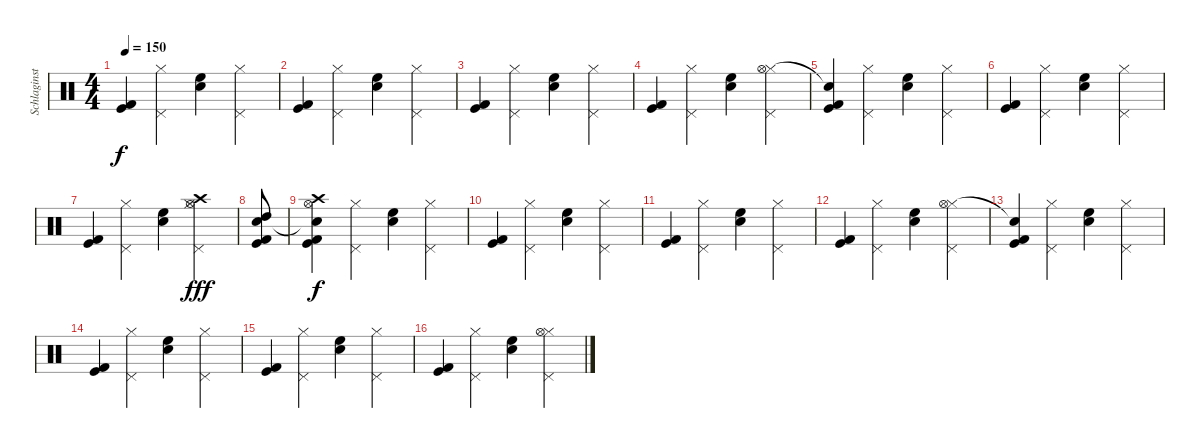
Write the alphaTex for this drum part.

\track ("Schlaginstrumente - Auswahl" "Schlaginst") {instrument percussion}
\staff {score}
\articulation defaults
\ts (4 4)
\tempo 150
\clef neutral
\ks c
("Kick (hit) 2" "Kick (hit)").4{dy f} ("Pedal Hi-Hat (hit)" "Hi-Hat (closed)").4 ("High Floor Tom (hit)" "Snare (hit) 2").4 ("Pedal Hi-Hat (hit)" "Hi-Hat (closed)").4 |
("Kick (hit) 2" "Kick (hit)").4 ("Pedal Hi-Hat (hit)" "Hi-Hat (closed)").4 ("High Floor Tom (hit)" "Snare (hit) 2").4 ("Pedal Hi-Hat (hit)" "Hi-Hat (closed)").4 |
("Kick (hit) 2" "Kick (hit)").4 ("Pedal Hi-Hat (hit)" "Hi-Hat (closed)").4 ("High Floor Tom (hit)" "Snare (hit) 2").4 ("Pedal Hi-Hat (hit)" "Hi-Hat (closed)").4 |
("Kick (hit) 2" "Kick (hit)").4 ("Pedal Hi-Hat (hit)" "Hi-Hat (closed)").4 ("High Floor Tom (hit)" "Snare (hit) 2").4 ("Pedal Hi-Hat (hit)" "Hi-Hat (closed)" "Hi-Hat (open)").4 |
("Kick (hit) 2" "Kick (hit)" "Snare (hit)"{t}).4 ("Pedal Hi-Hat (hit)" "Hi-Hat (closed)").4 ("High Floor Tom (hit)" "Snare (hit) 2").4 ("Pedal Hi-Hat (hit)" "Hi-Hat (closed)").4 |
("Kick (hit) 2" "Kick (hit)").4 ("Pedal Hi-Hat (hit)" "Hi-Hat (closed)").4 ("High Floor Tom (hit)" "Snare (hit) 2").4 ("Pedal Hi-Hat (hit)" "Hi-Hat (closed)").4 |
("Kick (hit) 2" "Kick (hit)").4 ("Pedal Hi-Hat (hit)" "Hi-Hat (closed)").4 ("High Floor Tom (hit)" "Snare (hit) 2").4 ("Pedal Hi-Hat (hit)" "Hi-Hat (closed)" "Hi-Hat (open)" "Crash high (hit)").4{dy fff} |
("Kick (hit)" "Kick (hit) 2" "Snare (hit) 2" "High Tom (hit)").8 |
("Kick (hit) 2" "Kick (hit)" "Snare (hit)"{t} "Hi-Hat (open)" "Crash high (hit)").4{dy f} ("Pedal Hi-Hat (hit)" "Hi-Hat (closed)").4 ("High Floor Tom (hit)" "Snare (hit) 2").4 ("Pedal Hi-Hat (hit)" "Hi-Hat (closed)").4 |
("Kick (hit) 2" "Kick (hit)").4 ("Pedal Hi-Hat (hit)" "Hi-Hat (closed)").4 ("High Floor Tom (hit)" "Snare (hit) 2").4 ("Pedal Hi-Hat (hit)" "Hi-Hat (closed)").4 |
("Kick (hit) 2" "Kick (hit)").4 ("Pedal Hi-Hat (hit)" "Hi-Hat (closed)").4 ("High Floor Tom (hit)" "Snare (hit) 2").4 ("Pedal Hi-Hat (hit)" "Hi-Hat (closed)").4 |
("Kick (hit) 2" "Kick (hit)").4 ("Pedal Hi-Hat (hit)" "Hi-Hat (closed)").4 ("High Floor Tom (hit)" "Snare (hit) 2").4 ("Pedal Hi-Hat (hit)" "Hi-Hat (closed)" "Hi-Hat (open)").4 |
("Kick (hit) 2" "Kick (hit)" "Snare (hit)"{t}).4 ("Pedal Hi-Hat (hit)" "Hi-Hat (closed)").4 ("High Floor Tom (hit)" "Snare (hit) 2").4 ("Pedal Hi-Hat (hit)" "Hi-Hat (closed)").4 |
("Kick (hit) 2" "Kick (hit)").4 ("Pedal Hi-Hat (hit)" "Hi-Hat (closed)").4 ("High Floor Tom (hit)" "Snare (hit) 2").4 ("Pedal Hi-Hat (hit)" "Hi-Hat (closed)").4 |
("Kick (hit) 2" "Kick (hit)").4 ("Pedal Hi-Hat (hit)" "Hi-Hat (closed)").4 ("High Floor Tom (hit)" "Snare (hit) 2").4 ("Pedal Hi-Hat (hit)" "Hi-Hat (closed)").4 |
("Kick (hit) 2" "Kick (hit)").4 ("Pedal Hi-Hat (hit)" "Hi-Hat (closed)").4 ("High Floor Tom (hit)" "Snare (hit) 2").4 ("Pedal Hi-Hat (hit)" "Hi-Hat (closed)" "Hi-Hat (open)").4
